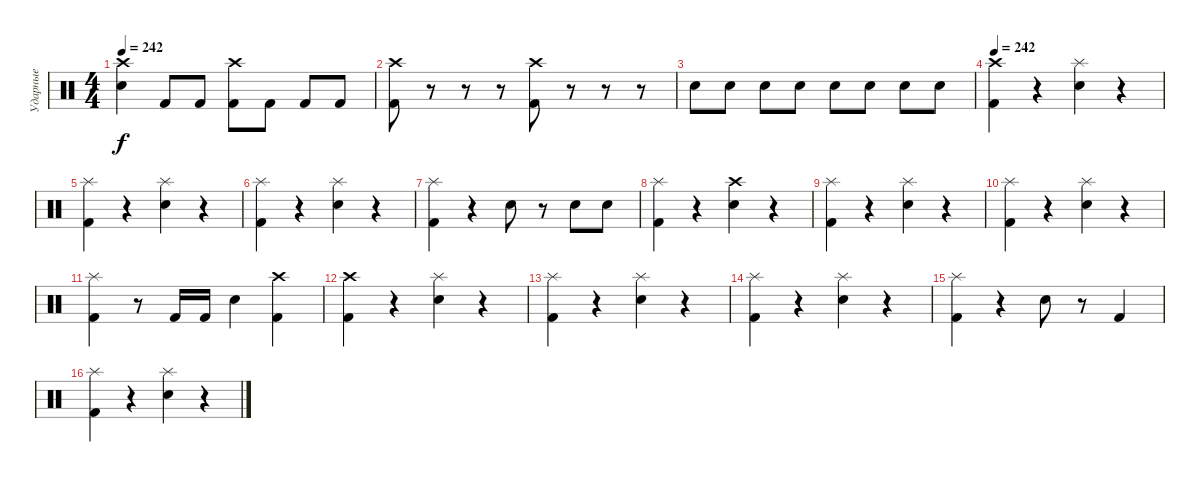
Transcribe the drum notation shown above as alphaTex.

\track ("Ударные" "Ударные") {instrument percussion}
\staff {score}
\articulation defaults
\ts (4 4)
\tempo 242
\clef neutral
\ks c
("Crash high (hit)" "Electric Snare (hit)").4{dy f} "Kick (hit) 2".8 "Kick (hit) 2".8 ("Crash high (hit)" "Kick (hit) 2").8 "Kick (hit) 2".8 "Kick (hit) 2".8 "Kick (hit) 2".8 |
("Crash high (hit)" "Kick (hit) 2").8 r.8 r.8 r.8 ("Crash high (hit)" "Kick (hit) 2").8 r.8 r.8 r.8 |
"Electric Snare (hit)".8 "Electric Snare (hit)".8 "Electric Snare (hit)".8 "Electric Snare (hit)".8 "Electric Snare (hit)".8 "Electric Snare (hit)".8 "Electric Snare (hit)".8 "Electric Snare (hit)".8 |
\tempo 242
("Crash high (hit)" "Kick (hit) 2").4 r.4 ("Splash (hit)" "Electric Snare (hit)").4 r.4 |
("Splash (hit)" "Kick (hit) 2").4 r.4 ("Splash (hit)" "Electric Snare (hit)").4 r.4 |
("Splash (hit)" "Kick (hit) 2").4 r.4 ("Splash (hit)" "Electric Snare (hit)").4 r.4 |
("Splash (hit)" "Kick (hit) 2").4 r.4 "Electric Snare (hit)".8 r.8 "Electric Snare (hit)".8 "Electric Snare (hit)".8 |
("Splash (hit)" "Kick (hit) 2").4 r.4 ("Crash high (hit)" "Electric Snare (hit)").4 r.4 |
("Splash (hit)" "Kick (hit) 2").4 r.4 ("Splash (hit)" "Electric Snare (hit)").4 r.4 |
("Splash (hit)" "Kick (hit) 2").4 r.4 ("Splash (hit)" "Electric Snare (hit)").4 r.4 |
("Splash (hit)" "Kick (hit) 2").4 r.8 "Kick (hit) 2".16 "Kick (hit) 2".16 "Electric Snare (hit)".4 ("Crash high (hit)" "Kick (hit) 2").4 |
("Crash high (hit)" "Kick (hit) 2").4 r.4 ("Splash (hit)" "Electric Snare (hit)").4 r.4 |
("Splash (hit)" "Kick (hit) 2").4 r.4 ("Splash (hit)" "Electric Snare (hit)").4 r.4 |
("Splash (hit)" "Kick (hit) 2").4 r.4 ("Splash (hit)" "Electric Snare (hit)").4 r.4 |
("Splash (hit)" "Kick (hit) 2").4 r.4 "Electric Snare (hit)".8 r.8 "Kick (hit) 2".4 |
("Splash (hit)" "Kick (hit) 2").4 r.4 ("Splash (hit)" "Electric Snare (hit)").4 r.4
